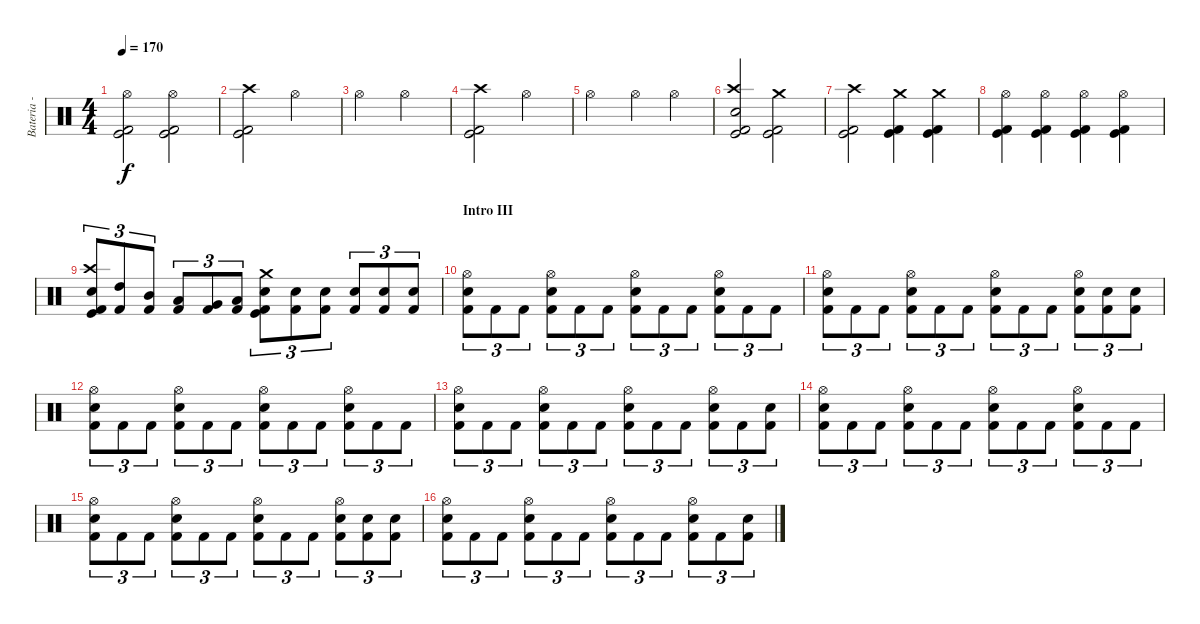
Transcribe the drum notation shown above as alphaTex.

\track ("Bateria - Drums" "Bateria - ") {instrument percussion}
\staff {score}
\articulation defaults
\ts (4 4)
\tempo 170
\clef neutral
\ks c
("Hi-Hat (open)" "Kick (hit)" "Kick (hit) 2").2{dy f} ("Hi-Hat (open)" "Kick (hit)" "Kick (hit) 2").2 |
("Crash high (hit)" "Kick (hit)" "Kick (hit) 2").2 "Hi-Hat (open)".2 |
"Hi-Hat (open)".2 "Hi-Hat (open)".2 |
("Crash high (hit)" "Kick (hit)" "Kick (hit) 2").2 "Hi-Hat (open)".2 |
"Hi-Hat (open)".2 "Hi-Hat (open)".4 "Hi-Hat (open)".4 |
("Crash high (hit)" "Snare (hit) 2" "Kick (hit)" "Kick (hit) 2").2 ("Crash medium (hit)" "Kick (hit)" "Kick (hit) 2").2 |
("Crash high (hit)" "Kick (hit)" "Kick (hit) 2").2 ("Crash medium (hit)" "Kick (hit)" "Kick (hit) 2").4 ("Crash medium (hit)" "Kick (hit)" "Kick (hit) 2").4 |
("Hi-Hat (open)" "Kick (hit)" "Kick (hit) 2").4 ("Hi-Hat (open)" "Kick (hit)" "Kick (hit) 2").4 ("Hi-Hat (open)" "Kick (hit)" "Kick (hit) 2").4 ("Hi-Hat (open)" "Kick (hit)" "Kick (hit) 2").4 |
("Crash high (hit)" "Snare (hit) 2" "Kick (hit)" "Kick (hit) 2").8{tu (3 2)} ("High Tom (hit)" "Kick (hit) 2").8{tu (3 2)} ("Mid Tom (hit)" "Kick (hit) 2").8{tu (3 2)} ("Low Tom (hit)" "Kick (hit) 2").8{tu (3 2)} ("Very Low Tom (hit)" "Kick (hit) 2").8{tu (3 2)} ("Low Floor Tom (hit)" "Kick (hit) 2").8{tu (3 2)} ("Crash medium (hit)" "Snare (hit) 2" "Kick (hit)" "Kick (hit) 2").8{tu (3 2)} ("Electric Snare (hit)" "Kick (hit) 2").8{tu (3 2)} ("Electric Snare (hit)" "Kick (hit) 2").8{tu (3 2)} ("Electric Snare (hit)" "Kick (hit) 2").8{tu (3 2)} ("Electric Snare (hit)" "Kick (hit) 2").8{tu (3 2)} ("Electric Snare (hit)" "Kick (hit) 2").8{tu (3 2)} |
\section ("" "Intro III")
("Hi-Hat (open)" "Snare (hit) 2" "Kick (hit) 2").8{tu (3 2)} "Kick (hit) 2".8{tu (3 2)} "Kick (hit) 2".8{tu (3 2)} ("Hi-Hat (open)" "Electric Snare (hit)" "Kick (hit) 2").8{tu (3 2)} "Kick (hit) 2".8{tu (3 2)} "Kick (hit) 2".8{tu (3 2)} ("Hi-Hat (open)" "Snare (hit) 2" "Kick (hit) 2").8{tu (3 2)} "Kick (hit) 2".8{tu (3 2)} "Kick (hit) 2".8{tu (3 2)} ("Hi-Hat (open)" "Electric Snare (hit)" "Kick (hit) 2").8{tu (3 2)} "Kick (hit) 2".8{tu (3 2)} "Kick (hit) 2".8{tu (3 2)} |
("Hi-Hat (open)" "Snare (hit) 2" "Kick (hit) 2").8{tu (3 2)} "Kick (hit) 2".8{tu (3 2)} "Kick (hit) 2".8{tu (3 2)} ("Hi-Hat (open)" "Electric Snare (hit)" "Kick (hit) 2").8{tu (3 2)} "Kick (hit) 2".8{tu (3 2)} "Kick (hit) 2".8{tu (3 2)} ("Hi-Hat (open)" "Snare (hit) 2" "Kick (hit) 2").8{tu (3 2)} "Kick (hit) 2".8{tu (3 2)} "Kick (hit) 2".8{tu (3 2)} ("Hi-Hat (open)" "Electric Snare (hit)" "Kick (hit) 2").8{tu (3 2)} ("Electric Snare (hit)" "Kick (hit) 2").8{tu (3 2)} ("Electric Snare (hit)" "Kick (hit) 2").8{tu (3 2)} |
("Hi-Hat (open)" "Snare (hit) 2" "Kick (hit) 2").8{tu (3 2)} "Kick (hit) 2".8{tu (3 2)} "Kick (hit) 2".8{tu (3 2)} ("Hi-Hat (open)" "Electric Snare (hit)" "Kick (hit) 2").8{tu (3 2)} "Kick (hit) 2".8{tu (3 2)} "Kick (hit) 2".8{tu (3 2)} ("Hi-Hat (open)" "Snare (hit) 2" "Kick (hit) 2").8{tu (3 2)} "Kick (hit) 2".8{tu (3 2)} "Kick (hit) 2".8{tu (3 2)} ("Hi-Hat (open)" "Electric Snare (hit)" "Kick (hit) 2").8{tu (3 2)} "Kick (hit) 2".8{tu (3 2)} "Kick (hit) 2".8{tu (3 2)} |
("Hi-Hat (open)" "Snare (hit) 2" "Kick (hit) 2").8{tu (3 2)} "Kick (hit) 2".8{tu (3 2)} "Kick (hit) 2".8{tu (3 2)} ("Hi-Hat (open)" "Electric Snare (hit)" "Kick (hit) 2").8{tu (3 2)} "Kick (hit) 2".8{tu (3 2)} "Kick (hit) 2".8{tu (3 2)} ("Hi-Hat (open)" "Snare (hit) 2" "Kick (hit) 2").8{tu (3 2)} "Kick (hit) 2".8{tu (3 2)} "Kick (hit) 2".8{tu (3 2)} ("Hi-Hat (open)" "Electric Snare (hit)" "Kick (hit) 2").8{tu (3 2)} "Kick (hit) 2".8{tu (3 2)} ("Electric Snare (hit)" "Kick (hit) 2").8{tu (3 2)} |
("Hi-Hat (open)" "Snare (hit) 2" "Kick (hit) 2").8{tu (3 2)} "Kick (hit) 2".8{tu (3 2)} "Kick (hit) 2".8{tu (3 2)} ("Hi-Hat (open)" "Electric Snare (hit)" "Kick (hit) 2").8{tu (3 2)} "Kick (hit) 2".8{tu (3 2)} "Kick (hit) 2".8{tu (3 2)} ("Hi-Hat (open)" "Snare (hit) 2" "Kick (hit) 2").8{tu (3 2)} "Kick (hit) 2".8{tu (3 2)} "Kick (hit) 2".8{tu (3 2)} ("Hi-Hat (open)" "Electric Snare (hit)" "Kick (hit) 2").8{tu (3 2)} "Kick (hit) 2".8{tu (3 2)} "Kick (hit) 2".8{tu (3 2)} |
("Hi-Hat (open)" "Snare (hit) 2" "Kick (hit) 2").8{tu (3 2)} "Kick (hit) 2".8{tu (3 2)} "Kick (hit) 2".8{tu (3 2)} ("Hi-Hat (open)" "Electric Snare (hit)" "Kick (hit) 2").8{tu (3 2)} "Kick (hit) 2".8{tu (3 2)} "Kick (hit) 2".8{tu (3 2)} ("Hi-Hat (open)" "Snare (hit) 2" "Kick (hit) 2").8{tu (3 2)} "Kick (hit) 2".8{tu (3 2)} "Kick (hit) 2".8{tu (3 2)} ("Hi-Hat (open)" "Electric Snare (hit)" "Kick (hit) 2").8{tu (3 2)} ("Electric Snare (hit)" "Kick (hit) 2").8{tu (3 2)} ("Electric Snare (hit)" "Kick (hit) 2").8{tu (3 2)} |
("Hi-Hat (open)" "Snare (hit) 2" "Kick (hit) 2").8{tu (3 2)} "Kick (hit) 2".8{tu (3 2)} "Kick (hit) 2".8{tu (3 2)} ("Hi-Hat (open)" "Electric Snare (hit)" "Kick (hit) 2").8{tu (3 2)} "Kick (hit) 2".8{tu (3 2)} "Kick (hit) 2".8{tu (3 2)} ("Hi-Hat (open)" "Snare (hit) 2" "Kick (hit) 2").8{tu (3 2)} "Kick (hit) 2".8{tu (3 2)} "Kick (hit) 2".8{tu (3 2)} ("Hi-Hat (open)" "Electric Snare (hit)" "Kick (hit) 2").8{tu (3 2)} "Kick (hit) 2".8{tu (3 2)} ("Electric Snare (hit)" "Kick (hit) 2").8{tu (3 2)}
